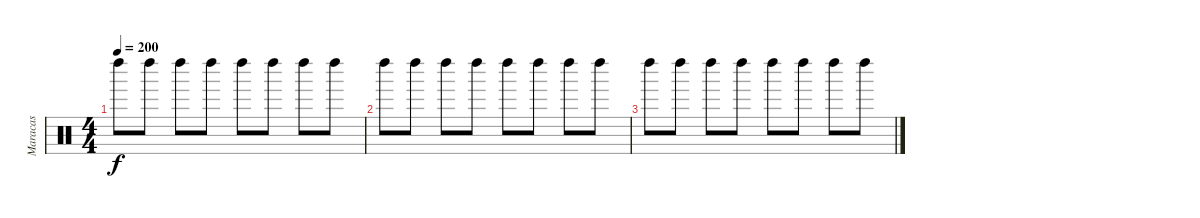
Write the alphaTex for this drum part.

\track ("Maracas" "Maracas") {instrument percussion}
\staff {score}
\articulation defaults
\ts (4 4)
\tempo 200
\clef neutral
\ks c "Left Maraca (hit)".8{dy f} "Left Maraca (hit)".8 "Left Maraca (hit)".8 "Left Maraca (hit)".8 "Left Maraca (hit)".8 "Left Maraca (hit)".8 "Left Maraca (hit)".8 "Left Maraca (hit)".8
|
"Left Maraca (hit)".8 "Left Maraca (hit)".8 "Left Maraca (hit)".8 "Left Maraca (hit)".8 "Left Maraca (hit)".8 "Left Maraca (hit)".8 "Left Maraca (hit)".8 "Left Maraca (hit)".8 |
"Left Maraca (hit)".8 "Left Maraca (hit)".8 "Left Maraca (hit)".8 "Left Maraca (hit)".8 "Left Maraca (hit)".8 "Left Maraca (hit)".8 "Left Maraca (hit)".8 "Left Maraca (hit)".8
